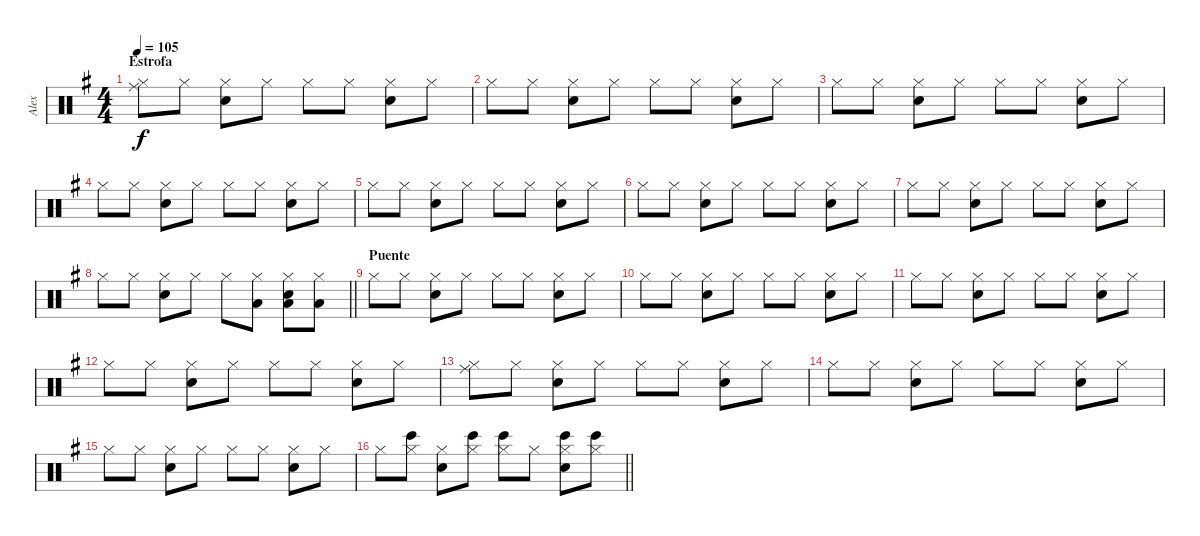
\track ("Alex" "Alex") {instrument percussion}
\staff {score}
\articulation defaults
\ts (4 4)
\section ("" "Estrofa")
\tempo 105
\clef neutral
\ks g
("Hi-Hat (closed)" "Ride (middle)").8{dy f} "Hi-Hat (closed)".8 ("Hi-Hat (closed)" "Snare (hit) 2").8 "Hi-Hat (closed)".8 "Hi-Hat (closed)".8 "Hi-Hat (closed)".8 ("Hi-Hat (closed)" "Snare (hit) 2").8 "Hi-Hat (closed)".8 |
"Hi-Hat (closed)".8 "Hi-Hat (closed)".8 ("Hi-Hat (closed)" "Snare (hit) 2").8 "Hi-Hat (closed)".8 "Hi-Hat (closed)".8 "Hi-Hat (closed)".8 ("Hi-Hat (closed)" "Snare (hit) 2").8 "Hi-Hat (closed)".8 |
"Hi-Hat (closed)".8 "Hi-Hat (closed)".8 ("Hi-Hat (closed)" "Snare (hit) 2").8 "Hi-Hat (closed)".8 "Hi-Hat (closed)".8 "Hi-Hat (closed)".8 ("Hi-Hat (closed)" "Snare (hit) 2").8 "Hi-Hat (closed)".8 |
"Hi-Hat (closed)".8 "Hi-Hat (closed)".8 ("Hi-Hat (closed)" "Snare (hit) 2").8 "Hi-Hat (closed)".8 "Hi-Hat (closed)".8 "Hi-Hat (closed)".8 ("Hi-Hat (closed)" "Snare (hit) 2").8 "Hi-Hat (closed)".8 |
"Hi-Hat (closed)".8 "Hi-Hat (closed)".8 ("Hi-Hat (closed)" "Snare (hit) 2").8 "Hi-Hat (closed)".8 "Hi-Hat (closed)".8 "Hi-Hat (closed)".8 ("Hi-Hat (closed)" "Snare (hit) 2").8 "Hi-Hat (closed)".8 |
"Hi-Hat (closed)".8 "Hi-Hat (closed)".8 ("Hi-Hat (closed)" "Snare (hit) 2").8 "Hi-Hat (closed)".8 "Hi-Hat (closed)".8 "Hi-Hat (closed)".8 ("Hi-Hat (closed)" "Snare (hit) 2").8 "Hi-Hat (closed)".8 |
"Hi-Hat (closed)".8 "Hi-Hat (closed)".8 ("Hi-Hat (closed)" "Snare (hit) 2").8 "Hi-Hat (closed)".8 "Hi-Hat (closed)".8 "Hi-Hat (closed)".8 ("Hi-Hat (closed)" "Snare (hit) 2").8 "Hi-Hat (closed)".8 |
\barLineRight lightlight "Hi-Hat (closed)".8 "Hi-Hat (closed)".8
("Hi-Hat (closed)" "Snare (hit) 2").8 "Hi-Hat (closed)".8 "Hi-Hat (closed)".8 ("Hi-Hat (closed)" "Low Floor Tom (hit)").8 ("Hi-Hat (closed)" "Snare (hit) 2" "Low Floor Tom (hit)").8 ("Hi-Hat (closed)" "Low Floor Tom (hit)").8 |
\section ("" "Puente")
"Hi-Hat (closed)".8 "Hi-Hat (closed)".8 ("Hi-Hat (closed)" "Snare (hit) 2").8 "Hi-Hat (closed)".8 "Hi-Hat (closed)".8 "Hi-Hat (closed)".8 ("Hi-Hat (closed)" "Snare (hit) 2").8 "Hi-Hat (closed)".8 |
"Hi-Hat (closed)".8 "Hi-Hat (closed)".8 ("Hi-Hat (closed)" "Snare (hit) 2").8 "Hi-Hat (closed)".8 "Hi-Hat (closed)".8 "Hi-Hat (closed)".8 ("Hi-Hat (closed)" "Snare (hit) 2").8 "Hi-Hat (closed)".8 |
"Hi-Hat (closed)".8 "Hi-Hat (closed)".8 ("Hi-Hat (closed)" "Snare (hit) 2").8 "Hi-Hat (closed)".8 "Hi-Hat (closed)".8 "Hi-Hat (closed)".8 ("Hi-Hat (closed)" "Snare (hit) 2").8 "Hi-Hat (closed)".8 |
"Hi-Hat (closed)".8 "Hi-Hat (closed)".8 ("Hi-Hat (closed)" "Snare (hit) 2").8 "Hi-Hat (closed)".8 "Hi-Hat (closed)".8 "Hi-Hat (closed)".8 ("Hi-Hat (closed)" "Snare (hit) 2").8 "Hi-Hat (closed)".8 |
("Hi-Hat (closed)" "Ride (middle)").8 "Hi-Hat (closed)".8 ("Hi-Hat (closed)" "Snare (hit) 2").8 "Hi-Hat (closed)".8 "Hi-Hat (closed)".8 "Hi-Hat (closed)".8 ("Hi-Hat (closed)" "Snare (hit) 2").8 "Hi-Hat (closed)".8 |
"Hi-Hat (closed)".8 "Hi-Hat (closed)".8 ("Hi-Hat (closed)" "Snare (hit) 2").8 "Hi-Hat (closed)".8 "Hi-Hat (closed)".8 "Hi-Hat (closed)".8 ("Hi-Hat (closed)" "Snare (hit) 2").8 "Hi-Hat (closed)".8 |
"Hi-Hat (closed)".8 "Hi-Hat (closed)".8 ("Hi-Hat (closed)" "Snare (hit) 2").8 "Hi-Hat (closed)".8 "Hi-Hat (closed)".8 "Hi-Hat (closed)".8 ("Hi-Hat (closed)" "Snare (hit) 2").8 "Hi-Hat (closed)".8 |
\barLineRight lightlight "Hi-Hat (closed)".8
("Hi-Hat (closed)" "Bongo High (hit)").8 ("Hi-Hat (closed)" "Snare (hit) 2").8 ("Hi-Hat (closed)" "Bongo High (hit)").8 ("Hi-Hat (closed)" "Bongo High (hit)").8 "Hi-Hat (closed)".8 ("Hi-Hat (closed)" "Snare (hit) 2" "Bongo High (hit)").8 ("Hi-Hat (closed)" "Bongo High (hit)").8
